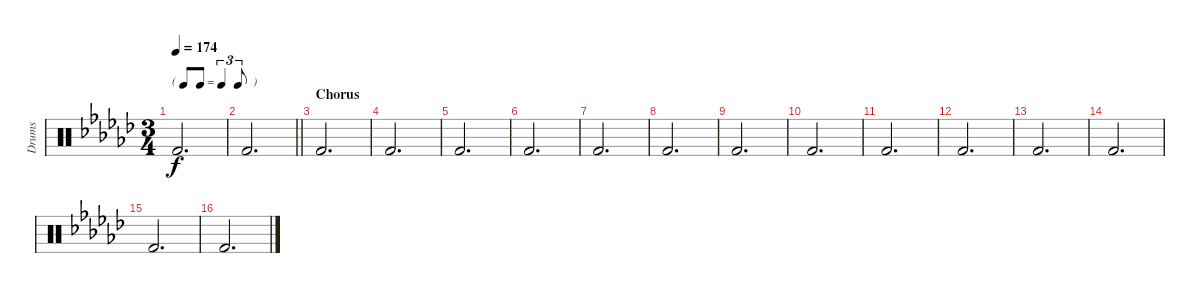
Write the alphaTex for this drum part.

\track ("Drums" "Drums") {instrument percussion}
\staff {score}
\articulation defaults
\ts (3 4)
\tf triplet8th
\tempo 174
\clef neutral
\ks ebminor "Kick (hit) 2".2{d dy f}
|
\barLineRight lightlight "Kick (hit) 2".2{d}
|
\section ("" "Chorus")
"Kick (hit) 2".2{d} |
"Kick (hit) 2".2{d} |
"Kick (hit) 2".2{d} |
"Kick (hit) 2".2{d} |
"Kick (hit) 2".2{d} |
"Kick (hit) 2".2{d} |
"Kick (hit) 2".2{d} |
"Kick (hit) 2".2{d} |
"Kick (hit) 2".2{d} |
"Kick (hit) 2".2{d} |
"Kick (hit) 2".2{d} |
"Kick (hit) 2".2{d} |
"Kick (hit) 2".2{d} |
"Kick (hit) 2".2{d}
